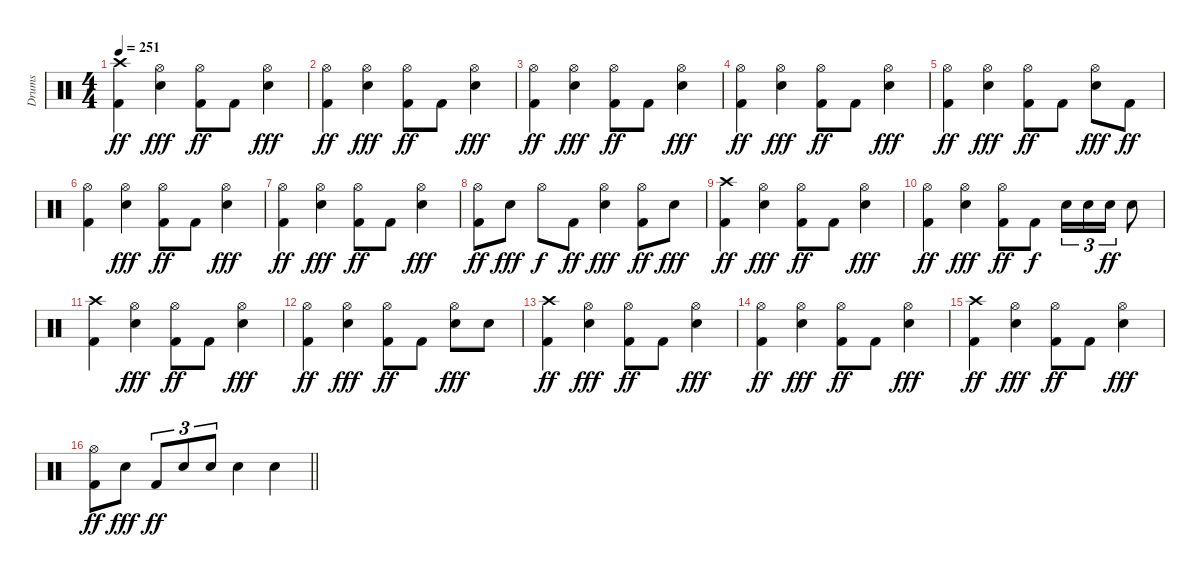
\track ("Drums" "Drums") {instrument percussion}
\staff {score}
\articulation defaults
\ts (4 4)
\tempo 251
\clef neutral
\ks c
("Crash high (hit)" "Kick (hit) 2").4{dy ff} ("Hi-Hat (open)" "Electric Snare (hit)").4{dy fff} ("Hi-Hat (open)" "Kick (hit) 2").8{dy ff} "Kick (hit) 2".8 ("Hi-Hat (open)" "Electric Snare (hit)").4{dy fff} |
("Hi-Hat (open)" "Kick (hit) 2").4{dy ff} ("Hi-Hat (open)" "Electric Snare (hit)").4{dy fff} ("Hi-Hat (open)" "Kick (hit) 2").8{dy ff} "Kick (hit) 2".8 ("Hi-Hat (open)" "Electric Snare (hit)").4{dy fff} |
("Hi-Hat (open)" "Kick (hit) 2").4{dy ff} ("Hi-Hat (open)" "Electric Snare (hit)").4{dy fff} ("Hi-Hat (open)" "Kick (hit) 2").8{dy ff} "Kick (hit) 2".8 ("Hi-Hat (open)" "Electric Snare (hit)").4{dy fff} |
("Hi-Hat (open)" "Kick (hit) 2").4{dy ff} ("Hi-Hat (open)" "Electric Snare (hit)").4{dy fff} ("Hi-Hat (open)" "Kick (hit) 2").8{dy ff} "Kick (hit) 2".8 ("Hi-Hat (open)" "Electric Snare (hit)").4{dy fff} |
("Hi-Hat (open)" "Kick (hit) 2").4{dy ff} ("Hi-Hat (open)" "Electric Snare (hit)").4{dy fff} ("Hi-Hat (open)" "Kick (hit) 2").8{dy ff} "Kick (hit) 2".8 ("Hi-Hat (open)" "Electric Snare (hit)").8{dy fff} "Kick (hit) 2".8{dy ff} |
("Hi-Hat (open)" "Kick (hit) 2").4 ("Hi-Hat (open)" "Electric Snare (hit)").4{dy fff} ("Hi-Hat (open)" "Kick (hit) 2").8{dy ff} "Kick (hit) 2".8 ("Hi-Hat (open)" "Electric Snare (hit)").4{dy fff} |
("Hi-Hat (open)" "Kick (hit) 2").4{dy ff} ("Hi-Hat (open)" "Electric Snare (hit)").4{dy fff} ("Hi-Hat (open)" "Kick (hit) 2").8{dy ff} "Kick (hit) 2".8 ("Hi-Hat (open)" "Electric Snare (hit)").4{dy fff} |
("Hi-Hat (open)" "Kick (hit) 2").8{dy ff} "Electric Snare (hit)".8{dy fff} "Hi-Hat (open)".8{dy f} "Kick (hit) 2".8{dy ff} ("Hi-Hat (open)" "Electric Snare (hit)").4{dy fff} ("Hi-Hat (open)" "Kick (hit) 2").8{dy ff} "Electric Snare (hit)".8{dy fff} |
("Crash high (hit)" "Kick (hit) 2").4{dy ff} ("Hi-Hat (open)" "Electric Snare (hit)").4{dy fff} ("Hi-Hat (open)" "Kick (hit) 2").8{dy ff} "Kick (hit) 2".8 ("Hi-Hat (open)" "Electric Snare (hit)").4{dy fff} |
("Hi-Hat (open)" "Kick (hit) 2").4{dy ff} ("Hi-Hat (open)" "Electric Snare (hit)").4{dy fff} ("Hi-Hat (open)" "Kick (hit) 2").8{dy ff} "Kick (hit) 2".8{dy f} "Electric Snare (hit)".16{tu (3 2)} "Electric Snare (hit)".16{tu (3 2)} "Electric Snare (hit)".16{tu (3 2) dy ff} "Electric Snare (hit)".8 |
("Crash high (hit)" "Kick (hit) 2").4 ("Hi-Hat (open)" "Electric Snare (hit)").4{dy fff} ("Hi-Hat (open)" "Kick (hit) 2").8{dy ff} "Kick (hit) 2".8 ("Hi-Hat (open)" "Electric Snare (hit)").4{dy fff} |
("Hi-Hat (open)" "Kick (hit) 2").4{dy ff} ("Hi-Hat (open)" "Electric Snare (hit)").4{dy fff} ("Hi-Hat (open)" "Kick (hit) 2").8{dy ff} "Kick (hit) 2".8 ("Hi-Hat (open)" "Electric Snare (hit)").8{dy fff} "Electric Snare (hit)".8 |
("Crash high (hit)" "Kick (hit) 2").4{dy ff} ("Hi-Hat (open)" "Electric Snare (hit)").4{dy fff} ("Hi-Hat (open)" "Kick (hit) 2").8{dy ff} "Kick (hit) 2".8 ("Hi-Hat (open)" "Electric Snare (hit)").4{dy fff} |
("Hi-Hat (open)" "Kick (hit) 2").4{dy ff} ("Hi-Hat (open)" "Electric Snare (hit)").4{dy fff} ("Hi-Hat (open)" "Kick (hit) 2").8{dy ff} "Kick (hit) 2".8 ("Hi-Hat (open)" "Electric Snare (hit)").4{dy fff} |
("Crash high (hit)" "Kick (hit) 2").4{dy ff} ("Hi-Hat (open)" "Electric Snare (hit)").4{dy fff} ("Hi-Hat (open)" "Kick (hit) 2").8{dy ff} "Kick (hit) 2".8 ("Hi-Hat (open)" "Electric Snare (hit)").4{dy fff} |
\barLineRight lightlight
("Hi-Hat (open)" "Kick (hit) 2").8{dy ff} "Electric Snare (hit)".8{dy fff} "Kick (hit) 2".8{tu (3 2) dy ff} "Electric Snare (hit)".8{tu (3 2)} "Electric Snare (hit)".8{tu (3 2)} "Electric Snare (hit)".4 "Electric Snare (hit)".4
